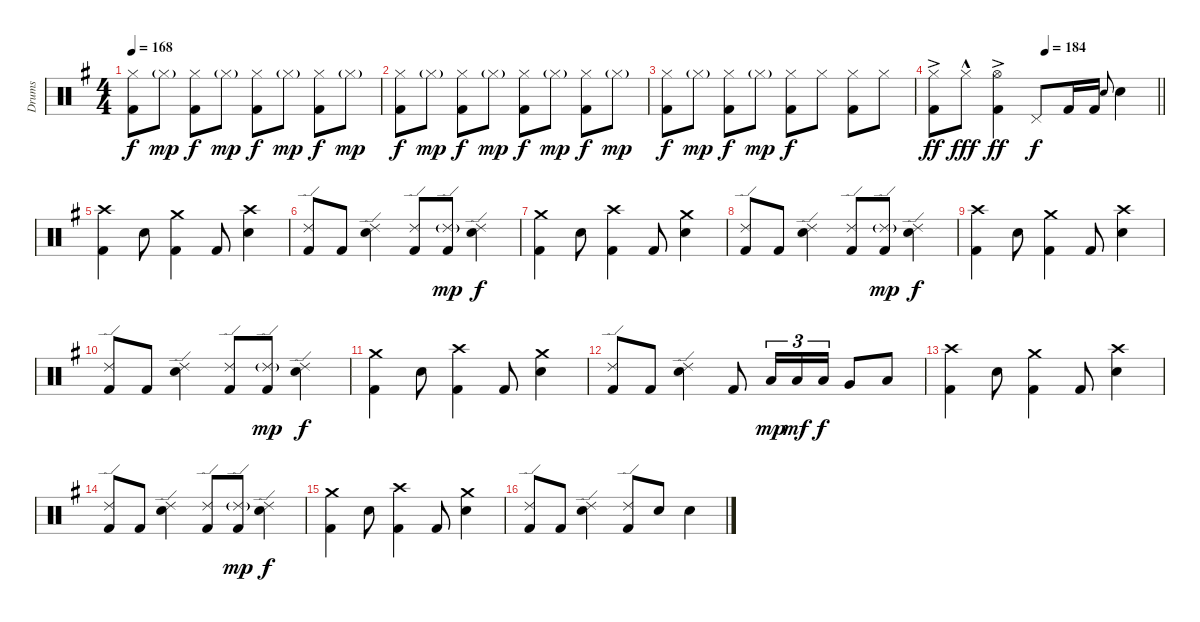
\track ("Drums" "Drums") {instrument percussion}
\staff {score}
\articulation defaults
\ts (4 4)
\tempo 168
\clef neutral
\ks g
("Hi-Hat (closed)" "Kick (hit) 2").8{dy f} "Hi-Hat (closed)"{g}.8{dy mp} ("Hi-Hat (closed)" "Kick (hit) 2").8{dy f} "Hi-Hat (closed)"{g}.8{dy mp} ("Hi-Hat (closed)" "Kick (hit) 2").8{dy f} "Hi-Hat (closed)"{g}.8{dy mp} ("Hi-Hat (closed)" "Kick (hit) 2").8{dy f} "Hi-Hat (closed)"{g}.8{dy mp} |
("Hi-Hat (closed)" "Kick (hit) 2").8{dy f} "Hi-Hat (closed)"{g}.8{dy mp} ("Hi-Hat (closed)" "Kick (hit) 2").8{dy f} "Hi-Hat (closed)"{g}.8{dy mp} ("Hi-Hat (closed)" "Kick (hit) 2").8{dy f} "Hi-Hat (closed)"{g}.8{dy mp} ("Hi-Hat (closed)" "Kick (hit) 2").8{dy f} "Hi-Hat (closed)"{g}.8{dy mp} |
("Hi-Hat (closed)" "Kick (hit) 2").8{dy f} "Hi-Hat (closed)"{g}.8{dy mp} ("Hi-Hat (closed)" "Kick (hit) 2").8{dy f} "Hi-Hat (closed)"{g}.8{dy mp} ("Hi-Hat (closed)" "Kick (hit) 2").8{dy f} "Hi-Hat (closed)".8 ("Hi-Hat (closed)" "Kick (hit) 2").8 "Hi-Hat (closed)".8 |
\tempo (184 0.5)
\barLineRight lightlight
("Hi-Hat (closed)"{ac} "Kick (hit) 2").8{dy ff} "Hi-Hat (closed)"{hac}.8{dy fff} ("Hi-Hat (open)"{ac} "Kick (hit) 2").4{dy ff} "Pedal Hi-Hat (hit)".8{dy f} "Kick (hit) 2".16 "Kick (hit) 2".16 "Snare (hit) 2".8{gr onbeat} "Snare (hit) 2".4 |
\section ("" "")
("Crash high (hit)" "Kick (hit) 2").4 "Snare (hit) 2".8 ("Crash medium (hit)" "Kick (hit) 2").4 "Kick (hit) 2".8 ("Crash high (hit)" "Snare (hit) 2").4 |
("Ride (edge) 2" "Kick (hit) 2").8 "Kick (hit) 2".8 ("Ride (edge) 2" "Snare (hit) 2").4 ("Ride (edge) 2" "Kick (hit) 2").8 ("Ride (edge) 2"{g} "Kick (hit) 2").8{dy mp} ("Ride (edge) 2" "Snare (hit) 2").4{dy f} |
("Crash medium (hit)" "Kick (hit) 2").4 "Snare (hit) 2".8 ("Crash high (hit)" "Kick (hit) 2").4 "Kick (hit) 2".8 ("Crash medium (hit)" "Snare (hit) 2").4 |
("Ride (edge) 2" "Kick (hit) 2").8 "Kick (hit) 2".8 ("Ride (edge) 2" "Snare (hit) 2").4 ("Ride (edge) 2" "Kick (hit) 2").8 ("Ride (edge) 2"{g} "Kick (hit) 2").8{dy mp} ("Ride (edge) 2" "Snare (hit) 2").4{dy f} |
("Crash high (hit)" "Kick (hit) 2").4 "Snare (hit) 2".8 ("Crash medium (hit)" "Kick (hit) 2").4 "Kick (hit) 2".8 ("Crash high (hit)" "Snare (hit) 2").4 |
("Ride (edge) 2" "Kick (hit) 2").8 "Kick (hit) 2".8 ("Ride (edge) 2" "Snare (hit) 2").4 ("Ride (edge) 2" "Kick (hit) 2").8 ("Ride (edge) 2"{g} "Kick (hit) 2").8{dy mp} ("Ride (edge) 2" "Snare (hit) 2").4{dy f} |
("Crash medium (hit)" "Kick (hit) 2").4 "Snare (hit) 2".8 ("Crash high (hit)" "Kick (hit) 2").4 "Kick (hit) 2".8 ("Crash medium (hit)" "Snare (hit) 2").4 |
("Ride (edge) 2" "Kick (hit) 2").8 "Kick (hit) 2".8 ("Ride (edge) 2" "Snare (hit) 2").4 "Kick (hit) 2".8 "Low Tom (hit)".16{tu (3 2) dy mp} "Low Tom (hit)".16{tu (3 2) dy mf} "Low Tom (hit)".16{tu (3 2) dy f} "Very Low Tom (hit)".8 "Low Floor Tom (hit)".8 |
("Crash high (hit)" "Kick (hit) 2").4 "Snare (hit) 2".8 ("Crash medium (hit)" "Kick (hit) 2").4 "Kick (hit) 2".8 ("Crash high (hit)" "Snare (hit) 2").4 |
("Ride (edge) 2" "Kick (hit) 2").8 "Kick (hit) 2".8 ("Ride (edge) 2" "Snare (hit) 2").4 ("Ride (edge) 2" "Kick (hit) 2").8 ("Ride (edge) 2"{g} "Kick (hit) 2").8{dy mp} ("Ride (edge) 2" "Snare (hit) 2").4{dy f} |
("Crash medium (hit)" "Kick (hit) 2").4 "Snare (hit) 2".8 ("Crash high (hit)" "Kick (hit) 2").4 "Kick (hit) 2".8 ("Crash medium (hit)" "Snare (hit) 2").4 |
("Ride (edge) 2" "Kick (hit) 2").8 "Kick (hit) 2".8 ("Ride (edge) 2" "Snare (hit) 2").4 ("Ride (edge) 2" "Kick (hit) 2").8 "Snare (hit) 2".8 "Snare (hit) 2".4
